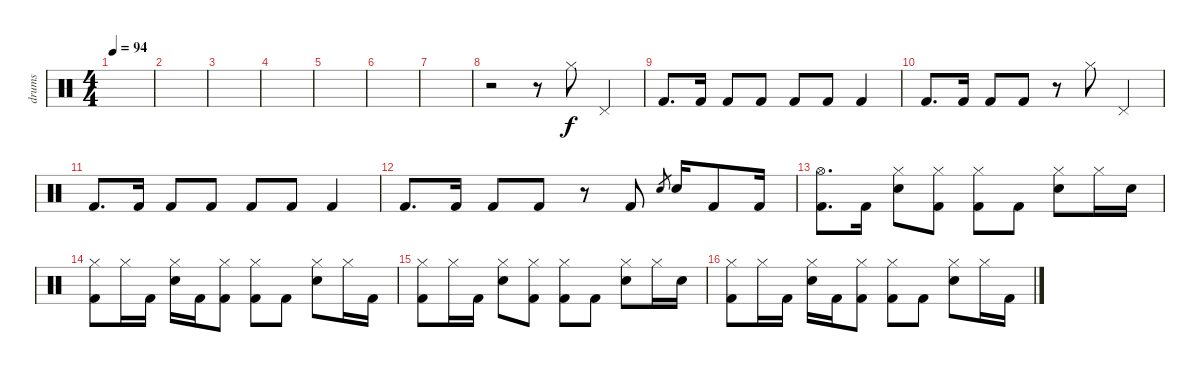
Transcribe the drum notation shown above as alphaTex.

\track ("drums" "drums") {instrument percussion}
\staff {score}
\articulation defaults
\ts (4 4)
\tempo 94
\clef neutral
\ks c
|
|
|
|
|
|
|
r.2 r.8 "Hi-Hat (closed)".8 "Pedal Hi-Hat (hit)".4 |
"Kick (hit) 2".8{d} "Kick (hit) 2".16 "Kick (hit) 2".8 "Kick (hit) 2".8 "Kick (hit) 2".8 "Kick (hit) 2".8 "Kick (hit) 2".4 |
"Kick (hit) 2".8{d} "Kick (hit) 2".16 "Kick (hit) 2".8 "Kick (hit) 2".8 r.8 "Hi-Hat (closed)".8 "Pedal Hi-Hat (hit)".4 |
"Kick (hit) 2".8{d} "Kick (hit) 2".16 "Kick (hit) 2".8 "Kick (hit) 2".8 "Kick (hit) 2".8 "Kick (hit) 2".8 "Kick (hit) 2".4 |
"Kick (hit) 2".8{d} "Kick (hit) 2".16 "Kick (hit) 2".8 "Kick (hit) 2".8 r.8 "Kick (hit) 2".8 "Snare (hit) 2".8{gr} "Snare (hit) 2".16 "Kick (hit) 2".8 "Kick (hit) 2".16 |
("Hi-Hat (open)" "Kick (hit) 2").8{d} "Kick (hit) 2".16 ("Snare (hit) 2" "Hi-Hat (closed)").8 ("Kick (hit) 2" "Hi-Hat (closed)").8 ("Kick (hit) 2" "Hi-Hat (closed)").8 "Kick (hit) 2".8 ("Snare (hit) 2" "Hi-Hat (closed)").8 "Hi-Hat (closed)".16 "Snare (hit) 2".16 |
("Hi-Hat (closed)" "Kick (hit) 2").8 "Hi-Hat (closed)".16 "Kick (hit) 2".16 ("Hi-Hat (closed)" "Snare (hit) 2").16 "Kick (hit) 2".16 ("Hi-Hat (closed)" "Kick (hit) 2").8 ("Kick (hit) 2" "Hi-Hat (closed)").8 "Kick (hit) 2".8 ("Hi-Hat (closed)" "Snare (hit) 2").8 "Hi-Hat (closed)".16 "Kick (hit) 2".16 |
("Kick (hit) 2" "Hi-Hat (closed)").8 "Hi-Hat (closed)".16 "Kick (hit) 2".16 ("Hi-Hat (closed)" "Snare (hit) 2").8 ("Kick (hit) 2" "Hi-Hat (closed)").8 ("Kick (hit) 2" "Hi-Hat (closed)").8 "Kick (hit) 2".8 ("Hi-Hat (closed)" "Snare (hit) 2").8 "Hi-Hat (closed)".16 "Snare (hit) 2".16 |
("Hi-Hat (closed)" "Kick (hit) 2").8 "Hi-Hat (closed)".16 "Kick (hit) 2".16 ("Hi-Hat (closed)" "Snare (hit) 2").16 "Kick (hit) 2".16 ("Hi-Hat (closed)" "Kick (hit) 2").8 ("Kick (hit) 2" "Hi-Hat (closed)").8 "Kick (hit) 2".8 ("Hi-Hat (closed)" "Snare (hit) 2").8 "Hi-Hat (closed)".16 "Kick (hit) 2".16
